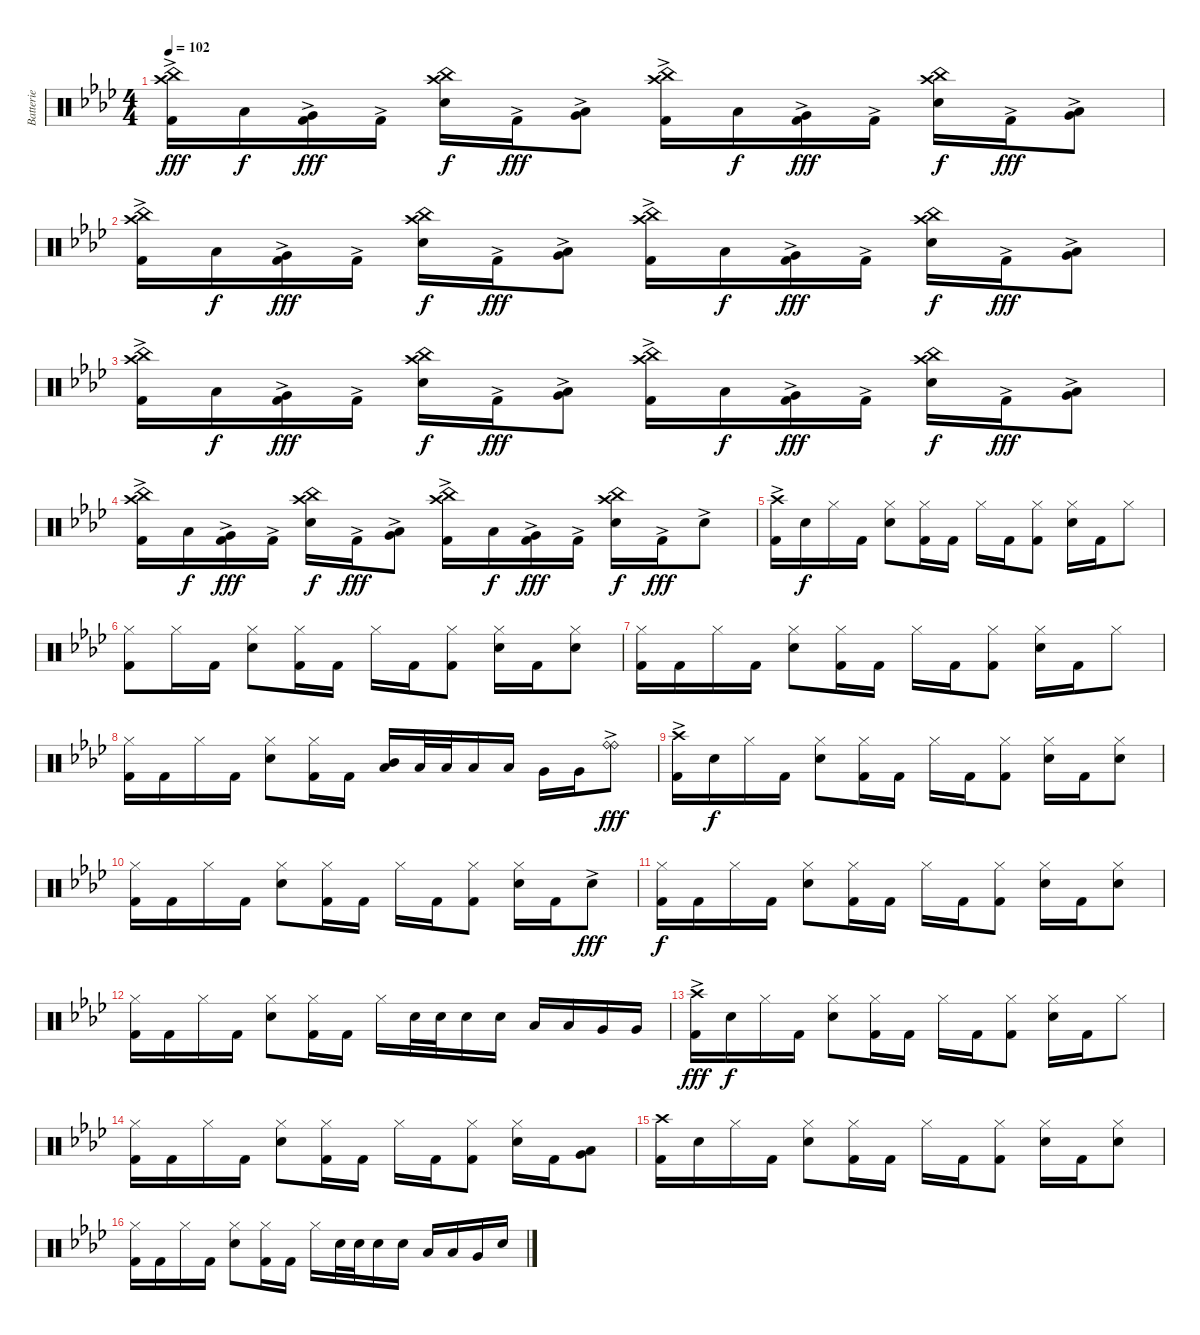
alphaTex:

\track ("Batterie" "Batterie") {instrument percussion}
\staff {score}
\articulation defaults
\ts (4 4)
\tempo 102
\clef neutral
\ks fminor
("Crash high (hit)" "China (hit)" "Kick (hit) 2"{ac}).16{dy fff} "Low Tom (hit)".16{dy f} ("Very Low Tom (hit)" "Kick (hit) 2"{ac}).16{dy fff} "Kick (hit) 2"{ac}.16 ("Crash high (hit)" "China (hit)" "Snare (hit) 2").16{dy f} "Kick (hit) 2"{ac}.16{dy fff} ("Low Tom (hit)" "Very Low Tom (hit)"{ac}).8 ("Crash high (hit)" "China (hit)" "Kick (hit) 2"{ac}).16 "Low Tom (hit)".16{dy f} ("Very Low Tom (hit)" "Kick (hit) 2"{ac}).16{dy fff} "Kick (hit) 2"{ac}.16 ("Crash high (hit)" "China (hit)" "Snare (hit) 2").16{dy f} "Kick (hit) 2"{ac}.16{dy fff} ("Low Tom (hit)" "Very Low Tom (hit)"{ac}).8 |
("Crash high (hit)" "China (hit)" "Kick (hit) 2"{ac}).16 "Low Tom (hit)".16{dy f} ("Very Low Tom (hit)" "Kick (hit) 2"{ac}).16{dy fff} "Kick (hit) 2"{ac}.16 ("Crash high (hit)" "China (hit)" "Snare (hit) 2").16{dy f} "Kick (hit) 2"{ac}.16{dy fff} ("Low Tom (hit)" "Very Low Tom (hit)"{ac}).8 ("Crash high (hit)" "China (hit)" "Kick (hit) 2"{ac}).16 "Low Tom (hit)".16{dy f} ("Very Low Tom (hit)" "Kick (hit) 2"{ac}).16{dy fff} "Kick (hit) 2"{ac}.16 ("Crash high (hit)" "China (hit)" "Snare (hit) 2").16{dy f} "Kick (hit) 2"{ac}.16{dy fff} ("Low Tom (hit)" "Very Low Tom (hit)"{ac}).8 |
("Crash high (hit)" "China (hit)" "Kick (hit) 2"{ac}).16 "Low Tom (hit)".16{dy f} ("Very Low Tom (hit)" "Kick (hit) 2"{ac}).16{dy fff} "Kick (hit) 2"{ac}.16 ("Crash high (hit)" "China (hit)" "Snare (hit) 2").16{dy f} "Kick (hit) 2"{ac}.16{dy fff} ("Low Tom (hit)" "Very Low Tom (hit)"{ac}).8 ("Crash high (hit)" "China (hit)" "Kick (hit) 2"{ac}).16 "Low Tom (hit)".16{dy f} ("Very Low Tom (hit)" "Kick (hit) 2"{ac}).16{dy fff} "Kick (hit) 2"{ac}.16 ("Crash high (hit)" "China (hit)" "Snare (hit) 2").16{dy f} "Kick (hit) 2"{ac}.16{dy fff} ("Low Tom (hit)" "Very Low Tom (hit)"{ac}).8 |
("Crash high (hit)" "China (hit)" "Kick (hit) 2"{ac}).16 "Low Tom (hit)".16{dy f} ("Very Low Tom (hit)" "Kick (hit) 2"{ac}).16{dy fff} "Kick (hit) 2"{ac}.16 ("Crash high (hit)" "China (hit)" "Snare (hit) 2").16{dy f} "Kick (hit) 2"{ac}.16{dy fff} ("Low Tom (hit)" "Very Low Tom (hit)"{ac}).8 ("Crash high (hit)" "China (hit)" "Kick (hit) 2"{ac}).16 "Low Tom (hit)".16{dy f} ("Very Low Tom (hit)" "Kick (hit) 2"{ac}).16{dy fff} "Kick (hit) 2"{ac}.16 ("Crash high (hit)" "China (hit)" "Snare (hit) 2").16{dy f} "Kick (hit) 2"{ac}.16{dy fff} "Snare (hit) 2"{ac}.8 |
("Crash high (hit)" "Kick (hit) 2"{ac}).16 "Snare (hit) 2".16{dy f} "Hi-Hat (closed)".16 "Kick (hit) 2".16 ("Hi-Hat (closed)" "Snare (hit) 2").8 ("Hi-Hat (closed)" "Kick (hit) 2").16 "Kick (hit) 2".16 "Hi-Hat (closed)".16 "Kick (hit) 2".16 ("Hi-Hat (closed)" "Kick (hit) 2").8 ("Hi-Hat (closed)" "Snare (hit) 2").16 "Kick (hit) 2".16 "Hi-Hat (closed)".8 |
("Hi-Hat (closed)" "Kick (hit) 2").8 "Hi-Hat (closed)".16 "Kick (hit) 2".16 ("Hi-Hat (closed)" "Snare (hit) 2").8 ("Hi-Hat (closed)" "Kick (hit) 2").16 "Kick (hit) 2".16 "Hi-Hat (closed)".16 "Kick (hit) 2".16 ("Hi-Hat (closed)" "Kick (hit) 2").8 ("Hi-Hat (closed)" "Snare (hit) 2").16 "Kick (hit) 2".16 ("Hi-Hat (closed)" "Snare (hit) 2").8 |
("Hi-Hat (closed)" "Kick (hit) 2").16 "Kick (hit) 2".16 "Hi-Hat (closed)".16 "Kick (hit) 2".16 ("Hi-Hat (closed)" "Snare (hit) 2").8 ("Hi-Hat (closed)" "Kick (hit) 2").16 "Kick (hit) 2".16 "Hi-Hat (closed)".16 "Kick (hit) 2".16 ("Hi-Hat (closed)" "Kick (hit) 2").8 ("Hi-Hat (closed)" "Snare (hit) 2").16 "Kick (hit) 2".16 "Hi-Hat (closed)".8 |
("Hi-Hat (closed)" "Kick (hit) 2").16 "Kick (hit) 2".16 "Hi-Hat (closed)".16 "Kick (hit) 2".16 ("Hi-Hat (closed)" "Snare (hit) 2").8 ("Hi-Hat (closed)" "Kick (hit) 2").16 "Kick (hit) 2".16 ("Mid Tom (hit)" "Low Tom (hit)").16 "Low Tom (hit)".32 "Low Tom (hit)".32 "Low Tom (hit)".16 "Low Tom (hit)".16 "Very Low Tom (hit)".16 "Very Low Tom (hit)".16 ("Ride (bell)"{ac} "Ride (bell)"{ac}).8{dy fff} |
\section ("" "")
("Crash high (hit)" "Kick (hit) 2"{ac}).16 "Snare (hit) 2".16{dy f} "Hi-Hat (closed)".16 "Kick (hit) 2".16 ("Hi-Hat (closed)" "Snare (hit) 2").8 ("Hi-Hat (closed)" "Kick (hit) 2").16 "Kick (hit) 2".16 "Hi-Hat (closed)".16 "Kick (hit) 2".16 ("Hi-Hat (closed)" "Kick (hit) 2").8 ("Hi-Hat (closed)" "Snare (hit) 2").16 "Kick (hit) 2".16 ("Hi-Hat (closed)" "Snare (hit) 2").8 |
("Hi-Hat (closed)" "Kick (hit) 2").16 "Kick (hit) 2".16 "Hi-Hat (closed)".16 "Kick (hit) 2".16 ("Hi-Hat (closed)" "Snare (hit) 2").8 ("Hi-Hat (closed)" "Kick (hit) 2").16 "Kick (hit) 2".16 "Hi-Hat (closed)".16 "Kick (hit) 2".16 ("Hi-Hat (closed)" "Kick (hit) 2").8 ("Hi-Hat (closed)" "Snare (hit) 2").16 "Kick (hit) 2".16 "Snare (hit) 2"{ac}.8{dy fff} |
("Hi-Hat (closed)" "Kick (hit) 2").16{dy f} "Kick (hit) 2".16 "Hi-Hat (closed)".16 "Kick (hit) 2".16 ("Hi-Hat (closed)" "Snare (hit) 2").8 ("Hi-Hat (closed)" "Kick (hit) 2").16 "Kick (hit) 2".16 "Hi-Hat (closed)".16 "Kick (hit) 2".16 ("Hi-Hat (closed)" "Kick (hit) 2").8 ("Hi-Hat (closed)" "Snare (hit) 2").16 "Kick (hit) 2".16 ("Hi-Hat (closed)" "Snare (hit) 2").8 |
("Hi-Hat (closed)" "Kick (hit) 2").16 "Kick (hit) 2".16 "Hi-Hat (closed)".16 "Kick (hit) 2".16 ("Hi-Hat (closed)" "Snare (hit) 2").8 ("Hi-Hat (closed)" "Kick (hit) 2").16 "Kick (hit) 2".16 "Hi-Hat (closed)".16 "Snare (hit) 2".32 "Snare (hit) 2".32 "Snare (hit) 2".16 "Snare (hit) 2".16 "Low Tom (hit)".16 "Low Tom (hit)".16 "Very Low Tom (hit)".16 "Very Low Tom (hit)".16 |
("Crash high (hit)" "Kick (hit) 2"{ac}).16{dy fff} "Snare (hit) 2".16{dy f} "Hi-Hat (closed)".16 "Kick (hit) 2".16 ("Hi-Hat (closed)" "Snare (hit) 2").8 ("Hi-Hat (closed)" "Kick (hit) 2").16 "Kick (hit) 2".16 "Hi-Hat (closed)".16 "Kick (hit) 2".16 ("Hi-Hat (closed)" "Kick (hit) 2").8 ("Hi-Hat (closed)" "Snare (hit) 2").16 "Kick (hit) 2".16 "Hi-Hat (closed)".8 |
("Hi-Hat (closed)" "Kick (hit) 2").16 "Kick (hit) 2".16 "Hi-Hat (closed)".16 "Kick (hit) 2".16 ("Hi-Hat (closed)" "Snare (hit) 2").8 ("Hi-Hat (closed)" "Kick (hit) 2").16 "Kick (hit) 2".16 "Hi-Hat (closed)".16 "Kick (hit) 2".16 ("Hi-Hat (closed)" "Kick (hit) 2").8 ("Hi-Hat (closed)" "Snare (hit) 2").16 "Kick (hit) 2".16 ("Low Tom (hit)" "Very Low Tom (hit)").8 |
("Crash high (hit)" "Kick (hit) 2").16 "Snare (hit) 2".16 "Hi-Hat (closed)".16 "Kick (hit) 2".16 ("Hi-Hat (closed)" "Snare (hit) 2").8 ("Hi-Hat (closed)" "Kick (hit) 2").16 "Kick (hit) 2".16 "Hi-Hat (closed)".16 "Kick (hit) 2".16 ("Hi-Hat (closed)" "Kick (hit) 2").8 ("Hi-Hat (closed)" "Snare (hit) 2").16 "Kick (hit) 2".16 ("Hi-Hat (closed)" "Snare (hit) 2").8 |
("Hi-Hat (closed)" "Kick (hit) 2").16 "Kick (hit) 2".16 "Hi-Hat (closed)".16 "Kick (hit) 2".16 ("Hi-Hat (closed)" "Snare (hit) 2").8 ("Hi-Hat (closed)" "Kick (hit) 2").16 "Kick (hit) 2".16 "Hi-Hat (closed)".16 "Snare (hit) 2".32 "Snare (hit) 2".32 "Snare (hit) 2".16 "Snare (hit) 2".16 "Low Tom (hit)".16 "Low Tom (hit)".16 "Very Low Tom (hit)".16 "Snare (hit) 2".16
